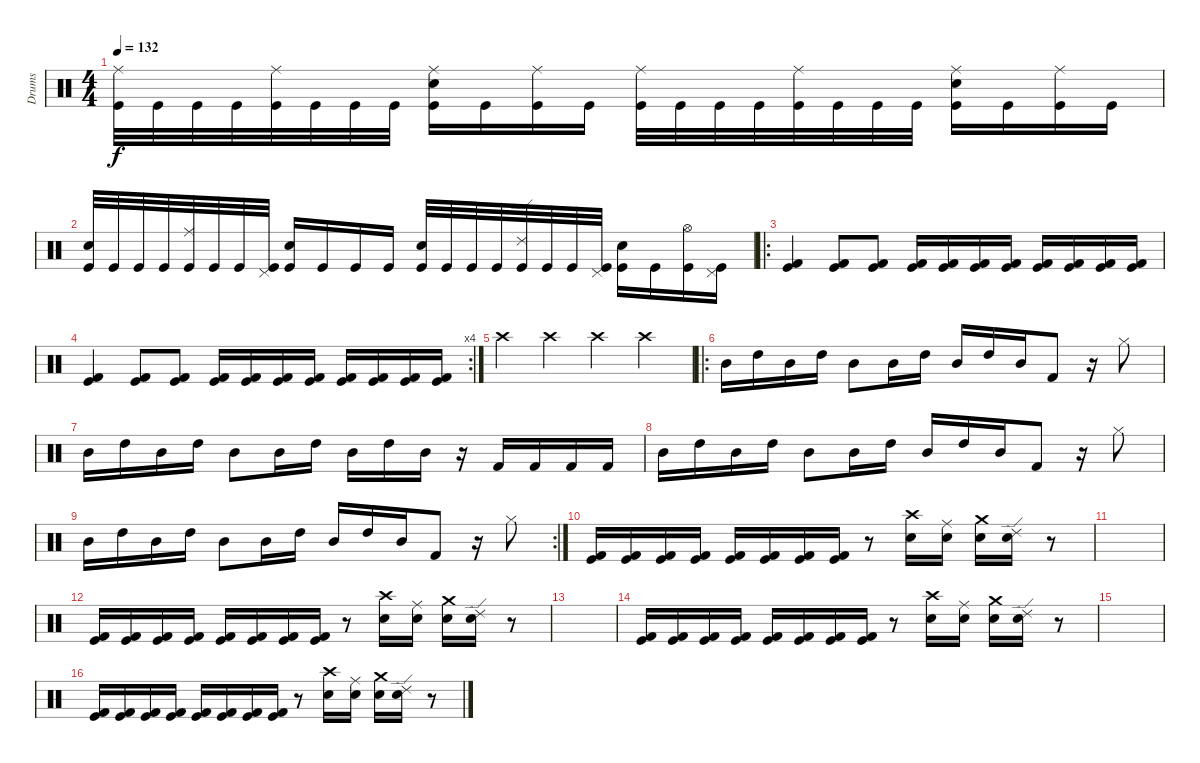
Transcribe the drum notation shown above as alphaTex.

\track ("Drums" "Drums") {instrument percussion}
\staff {score}
\articulation defaults
\ts (4 4)
\tempo 132
\clef neutral
\ks c
("Ride (middle)" "Kick (hit)").32{dy f} "Kick (hit)".32 "Kick (hit)".32 "Kick (hit)".32 ("Ride (middle)" "Kick (hit)").32 "Kick (hit)".32 "Kick (hit)".32 "Kick (hit)".32 ("Snare (hit) 2" "Ride (middle)" "Kick (hit)").16 "Kick (hit)".16 ("Ride (middle)" "Kick (hit)").16 "Kick (hit)".16 ("Ride (middle)" "Kick (hit)").32 "Kick (hit)".32 "Kick (hit)".32 "Kick (hit)".32 ("Ride (middle)" "Kick (hit)").32 "Kick (hit)".32 "Kick (hit)".32 "Kick (hit)".32 ("Snare (hit) 2" "Ride (middle)" "Kick (hit)").16 "Kick (hit)".16 ("Ride (middle)" "Kick (hit)").16 "Kick (hit)".16 |
("Snare (hit) 2" "Kick (hit)").32 "Kick (hit)".32 "Kick (hit)".32 "Kick (hit)".32 ("Ride (middle)" "Kick (hit)").32 "Kick (hit)".32 "Kick (hit)".32 ("Pedal Hi-Hat (hit)" "Kick (hit)").32 ("Snare (hit) 2" "Kick (hit)").16 "Kick (hit)".16 "Kick (hit)".16 "Kick (hit)".16 ("Snare (hit) 2" "Kick (hit)").32 "Kick (hit)".32 "Kick (hit)".32 "Kick (hit)".32 ("Ride (edge) 2" "Kick (hit)").32 "Kick (hit)".32 "Kick (hit)".32 ("Pedal Hi-Hat (hit)" "Kick (hit)").32 ("Snare (hit) 2" "Kick (hit)").16 "Kick (hit)".16 ("Hi-Hat (open)" "Kick (hit)").16 ("Pedal Hi-Hat (hit)" "Kick (hit)").16 |
\ro
("Kick (hit)" "Kick (hit) 2").4 ("Kick (hit)" "Kick (hit) 2").8 ("Kick (hit)" "Kick (hit) 2").8 ("Kick (hit)" "Kick (hit) 2").16 ("Kick (hit)" "Kick (hit) 2").16 ("Kick (hit)" "Kick (hit) 2").16 ("Kick (hit)" "Kick (hit) 2").16 ("Kick (hit)" "Kick (hit) 2").16 ("Kick (hit)" "Kick (hit) 2").16 ("Kick (hit)" "Kick (hit) 2").16 ("Kick (hit)" "Kick (hit) 2").16 |
\rc 4
("Kick (hit)" "Kick (hit) 2").4 ("Kick (hit)" "Kick (hit) 2").8 ("Kick (hit)" "Kick (hit) 2").8 ("Kick (hit)" "Kick (hit) 2").16 ("Kick (hit)" "Kick (hit) 2").16 ("Kick (hit)" "Kick (hit) 2").16 ("Kick (hit)" "Kick (hit) 2").16 ("Kick (hit)" "Kick (hit) 2").16 ("Kick (hit)" "Kick (hit) 2").16 ("Kick (hit)" "Kick (hit) 2").16 ("Kick (hit)" "Kick (hit) 2").16 |
"Crash high (hit)".4 "Crash high (hit)".4 "Crash high (hit)".4 "Crash high (hit)".4 |
\ro "Mid Tom (hit)".16 "High Tom (hit)".16 "Mid Tom (hit)".16 "High Tom (hit)".16 "Mid Tom (hit)".8 "Mid Tom (hit)".16 "High Tom (hit)".16 "Mid Tom (hit)".16 "High Tom (hit)".16 "Mid Tom (hit)".16 "Kick (hit) 2".8
r.16 "Hi-Hat (closed)".8 |
"Mid Tom (hit)".16 "High Tom (hit)".16 "Mid Tom (hit)".16 "High Tom (hit)".16 "Mid Tom (hit)".8 "Mid Tom (hit)".16 "High Tom (hit)".16 "Mid Tom (hit)".16 "High Tom (hit)".16 "Mid Tom (hit)".16 r.16 "Kick (hit) 2".16 "Kick (hit) 2".16 "Kick (hit) 2".16 "Kick (hit) 2".16 |
"Mid Tom (hit)".16 "High Tom (hit)".16 "Mid Tom (hit)".16 "High Tom (hit)".16 "Mid Tom (hit)".8 "Mid Tom (hit)".16 "High Tom (hit)".16 "Mid Tom (hit)".16 "High Tom (hit)".16 "Mid Tom (hit)".16 "Kick (hit) 2".8 r.16 "Hi-Hat (closed)".8 |
\rc 2 "Mid Tom (hit)".16 "High Tom (hit)".16 "Mid Tom (hit)".16 "High Tom (hit)".16 "Mid Tom (hit)".8 "Mid Tom (hit)".16 "High Tom (hit)".16 "Mid Tom (hit)".16 "High Tom (hit)".16 "Mid Tom (hit)".16 "Kick (hit) 2".8
r.16 "Hi-Hat (closed)".8 |
("Kick (hit)" "Kick (hit) 2").16 ("Kick (hit)" "Kick (hit) 2").16 ("Kick (hit)" "Kick (hit) 2").16 ("Kick (hit)" "Kick (hit) 2").16 ("Kick (hit)" "Kick (hit) 2").16 ("Kick (hit)" "Kick (hit) 2").16 ("Kick (hit)" "Kick (hit) 2").16 ("Kick (hit)" "Kick (hit) 2").16 r.8 ("Snare (hit) 2" "Crash high (hit)").16 ("Ride (middle)" "Snare (hit) 2").16 ("Snare (hit) 2" "Crash medium (hit)").16 ("Ride (edge) 2" "Snare (hit) 2").16 r.8 |
|
("Kick (hit)" "Kick (hit) 2").16 ("Kick (hit)" "Kick (hit) 2").16 ("Kick (hit)" "Kick (hit) 2").16 ("Kick (hit)" "Kick (hit) 2").16 ("Kick (hit)" "Kick (hit) 2").16 ("Kick (hit)" "Kick (hit) 2").16 ("Kick (hit)" "Kick (hit) 2").16 ("Kick (hit)" "Kick (hit) 2").16 r.8 ("Snare (hit) 2" "Crash high (hit)").16 ("Ride (middle)" "Snare (hit) 2").16 ("Snare (hit) 2" "Crash medium (hit)").16 ("Ride (edge) 2" "Snare (hit) 2").16 r.8 |
|
("Kick (hit)" "Kick (hit) 2").16 ("Kick (hit)" "Kick (hit) 2").16 ("Kick (hit)" "Kick (hit) 2").16 ("Kick (hit)" "Kick (hit) 2").16 ("Kick (hit)" "Kick (hit) 2").16 ("Kick (hit)" "Kick (hit) 2").16 ("Kick (hit)" "Kick (hit) 2").16 ("Kick (hit)" "Kick (hit) 2").16 r.8 ("Snare (hit) 2" "Crash high (hit)").16 ("Ride (middle)" "Snare (hit) 2").16 ("Snare (hit) 2" "Crash medium (hit)").16 ("Ride (edge) 2" "Snare (hit) 2").16 r.8 |
|
("Kick (hit)" "Kick (hit) 2").16 ("Kick (hit)" "Kick (hit) 2").16 ("Kick (hit)" "Kick (hit) 2").16 ("Kick (hit)" "Kick (hit) 2").16 ("Kick (hit)" "Kick (hit) 2").16 ("Kick (hit)" "Kick (hit) 2").16 ("Kick (hit)" "Kick (hit) 2").16 ("Kick (hit)" "Kick (hit) 2").16 r.8 ("Snare (hit) 2" "Crash high (hit)").16 ("Ride (middle)" "Snare (hit) 2").16 ("Snare (hit) 2" "Crash medium (hit)").16 ("Ride (edge) 2" "Snare (hit) 2").16 r.8
